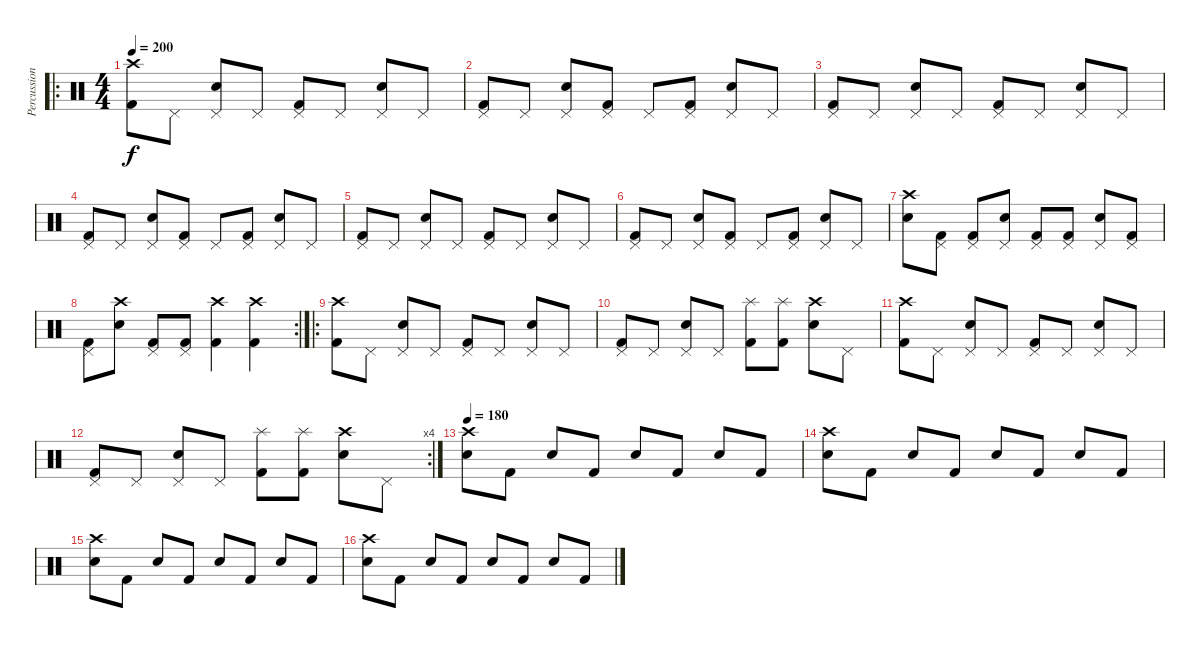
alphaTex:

\track ("Percussion" "Percussion") {instrument percussion}
\staff {score}
\articulation defaults
\ro
\ts (4 4)
\tempo 200
\clef neutral
\ks c
("Kick (hit) 2" "Crash high (hit)").8{dy f} "Pedal Hi-Hat (hit)".8 ("Electric Snare (hit)" "Pedal Hi-Hat (hit)").8 "Pedal Hi-Hat (hit)".8 ("Kick (hit) 2" "Pedal Hi-Hat (hit)").8 "Pedal Hi-Hat (hit)".8 ("Electric Snare (hit)" "Pedal Hi-Hat (hit)").8 "Pedal Hi-Hat (hit)".8 |
("Kick (hit) 2" "Pedal Hi-Hat (hit)").8 "Pedal Hi-Hat (hit)".8 ("Electric Snare (hit)" "Pedal Hi-Hat (hit)").8 ("Kick (hit) 2" "Pedal Hi-Hat (hit)").8 "Pedal Hi-Hat (hit)".8 ("Kick (hit) 2" "Pedal Hi-Hat (hit)").8 ("Electric Snare (hit)" "Pedal Hi-Hat (hit)").8 "Pedal Hi-Hat (hit)".8 |
("Kick (hit) 2" "Pedal Hi-Hat (hit)").8 "Pedal Hi-Hat (hit)".8 ("Electric Snare (hit)" "Pedal Hi-Hat (hit)").8 "Pedal Hi-Hat (hit)".8 ("Kick (hit) 2" "Pedal Hi-Hat (hit)").8 "Pedal Hi-Hat (hit)".8 ("Electric Snare (hit)" "Pedal Hi-Hat (hit)").8 "Pedal Hi-Hat (hit)".8 |
("Kick (hit) 2" "Pedal Hi-Hat (hit)").8 "Pedal Hi-Hat (hit)".8 ("Electric Snare (hit)" "Pedal Hi-Hat (hit)").8 ("Kick (hit) 2" "Pedal Hi-Hat (hit)").8 "Pedal Hi-Hat (hit)".8 ("Kick (hit) 2" "Pedal Hi-Hat (hit)").8 ("Electric Snare (hit)" "Pedal Hi-Hat (hit)").8 "Pedal Hi-Hat (hit)".8 |
("Kick (hit) 2" "Pedal Hi-Hat (hit)").8 "Pedal Hi-Hat (hit)".8 ("Electric Snare (hit)" "Pedal Hi-Hat (hit)").8 "Pedal Hi-Hat (hit)".8 ("Kick (hit) 2" "Pedal Hi-Hat (hit)").8 "Pedal Hi-Hat (hit)".8 ("Electric Snare (hit)" "Pedal Hi-Hat (hit)").8 "Pedal Hi-Hat (hit)".8 |
("Kick (hit) 2" "Pedal Hi-Hat (hit)").8 "Pedal Hi-Hat (hit)".8 ("Electric Snare (hit)" "Pedal Hi-Hat (hit)").8 ("Kick (hit) 2" "Pedal Hi-Hat (hit)").8 "Pedal Hi-Hat (hit)".8 ("Kick (hit) 2" "Pedal Hi-Hat (hit)").8 ("Electric Snare (hit)" "Pedal Hi-Hat (hit)").8 "Pedal Hi-Hat (hit)".8 |
("Electric Snare (hit)" "Crash high (hit)").8 ("Kick (hit) 2" "Pedal Hi-Hat (hit)").8 ("Kick (hit) 2" "Pedal Hi-Hat (hit)").8 ("Electric Snare (hit)" "Pedal Hi-Hat (hit)").8 ("Kick (hit) 2" "Pedal Hi-Hat (hit)").8 ("Kick (hit) 2" "Pedal Hi-Hat (hit)").8 ("Electric Snare (hit)" "Pedal Hi-Hat (hit)").8 ("Kick (hit) 2" "Pedal Hi-Hat (hit)").8 |
\rc 2
("Kick (hit) 2" "Pedal Hi-Hat (hit)").8 ("Electric Snare (hit)" "Crash high (hit)").8 ("Kick (hit) 2" "Pedal Hi-Hat (hit)").8 ("Kick (hit) 2" "Pedal Hi-Hat (hit)").8 ("Kick (hit) 2" "Crash high (hit)").4 ("Kick (hit) 2" "Crash high (hit)").4 |
\ro
("Kick (hit) 2" "Crash high (hit)").8 "Pedal Hi-Hat (hit)".8 ("Electric Snare (hit)" "Pedal Hi-Hat (hit)").8 "Pedal Hi-Hat (hit)".8 ("Kick (hit) 2" "Pedal Hi-Hat (hit)").8 "Pedal Hi-Hat (hit)".8 ("Electric Snare (hit)" "Pedal Hi-Hat (hit)").8 "Pedal Hi-Hat (hit)".8 |
("Kick (hit) 2" "Pedal Hi-Hat (hit)").8 "Pedal Hi-Hat (hit)".8 ("Electric Snare (hit)" "Pedal Hi-Hat (hit)").8 "Pedal Hi-Hat (hit)".8 ("Kick (hit) 2" "Splash (hit)").8 ("Kick (hit) 2" "Splash (hit)").8 ("Electric Snare (hit)" "Crash high (hit)").8 "Pedal Hi-Hat (hit)".8 |
("Kick (hit) 2" "Crash high (hit)").8 "Pedal Hi-Hat (hit)".8 ("Electric Snare (hit)" "Pedal Hi-Hat (hit)").8 "Pedal Hi-Hat (hit)".8 ("Kick (hit) 2" "Pedal Hi-Hat (hit)").8 "Pedal Hi-Hat (hit)".8 ("Electric Snare (hit)" "Pedal Hi-Hat (hit)").8 "Pedal Hi-Hat (hit)".8 |
\rc 4
("Kick (hit) 2" "Pedal Hi-Hat (hit)").8 "Pedal Hi-Hat (hit)".8 ("Electric Snare (hit)" "Pedal Hi-Hat (hit)").8 "Pedal Hi-Hat (hit)".8 ("Kick (hit) 2" "Splash (hit)").8 ("Kick (hit) 2" "Splash (hit)").8 ("Electric Snare (hit)" "Crash high (hit)").8 "Pedal Hi-Hat (hit)".8 |
\tempo 180
("Electric Snare (hit)" "Crash high (hit)").8 "Kick (hit) 2".8 "Electric Snare (hit)".8 "Kick (hit) 2".8 "Electric Snare (hit)".8 "Kick (hit) 2".8 "Electric Snare (hit)".8 "Kick (hit) 2".8 |
("Electric Snare (hit)" "Crash high (hit)").8 "Kick (hit) 2".8 "Electric Snare (hit)".8 "Kick (hit) 2".8 "Electric Snare (hit)".8 "Kick (hit) 2".8 "Electric Snare (hit)".8 "Kick (hit) 2".8 |
("Electric Snare (hit)" "Crash high (hit)").8 "Kick (hit) 2".8 "Electric Snare (hit)".8 "Kick (hit) 2".8 "Electric Snare (hit)".8 "Kick (hit) 2".8 "Electric Snare (hit)".8 "Kick (hit) 2".8 |
("Electric Snare (hit)" "Crash high (hit)").8 "Kick (hit) 2".8 "Electric Snare (hit)".8 "Kick (hit) 2".8 "Electric Snare (hit)".8 "Kick (hit) 2".8 "Electric Snare (hit)".8 "Kick (hit) 2".8
